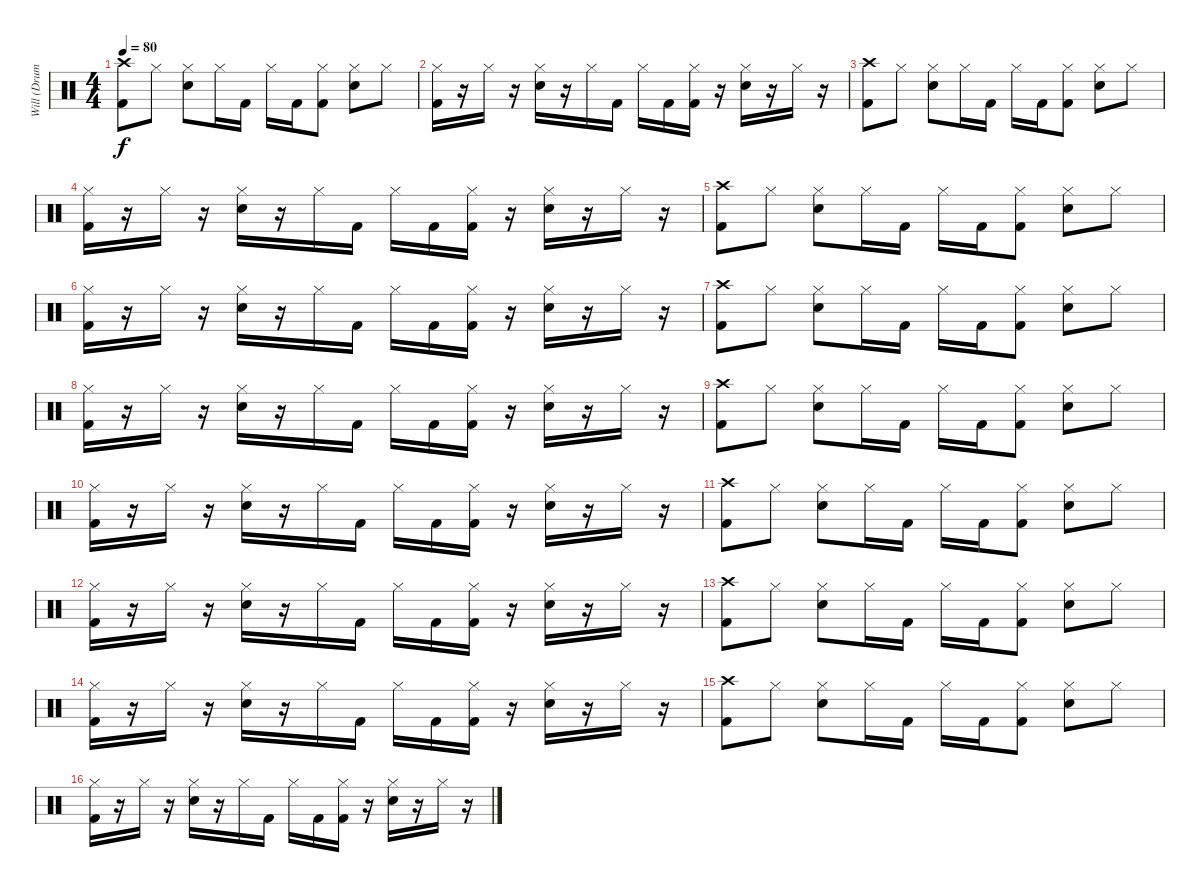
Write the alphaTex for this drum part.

\track ("Will (Drums)" "Will (Drum") {instrument percussion}
\staff {score}
\articulation defaults
\ts (4 4)
\tempo 80
\clef neutral
\ks c
("Crash high (hit)" "Kick (hit) 2").8{dy f} "Hi-Hat (closed)".8 ("Hi-Hat (closed)" "Snare (hit) 2").8 "Hi-Hat (closed)".16 "Kick (hit) 2".16 "Hi-Hat (closed)".16 "Kick (hit) 2".16 ("Hi-Hat (closed)" "Kick (hit) 2").8 ("Hi-Hat (closed)" "Snare (hit) 2").8 "Hi-Hat (closed)".8 |
("Hi-Hat (closed)" "Kick (hit) 2").16 r.16 "Hi-Hat (closed)".16 r.16 ("Hi-Hat (closed)" "Snare (hit) 2").16 r.16 "Hi-Hat (closed)".16 "Kick (hit) 2".16 "Hi-Hat (closed)".16 "Kick (hit) 2".16 ("Hi-Hat (closed)" "Kick (hit) 2").16 r.16 ("Hi-Hat (closed)" "Snare (hit) 2").16 r.16 "Hi-Hat (closed)".16 r.16 |
("Crash high (hit)" "Kick (hit) 2").8 "Hi-Hat (closed)".8 ("Hi-Hat (closed)" "Snare (hit) 2").8 "Hi-Hat (closed)".16 "Kick (hit) 2".16 "Hi-Hat (closed)".16 "Kick (hit) 2".16 ("Hi-Hat (closed)" "Kick (hit) 2").8 ("Hi-Hat (closed)" "Snare (hit) 2").8 "Hi-Hat (closed)".8 |
("Hi-Hat (closed)" "Kick (hit) 2").16 r.16 "Hi-Hat (closed)".16 r.16 ("Hi-Hat (closed)" "Snare (hit) 2").16 r.16 "Hi-Hat (closed)".16 "Kick (hit) 2".16 "Hi-Hat (closed)".16 "Kick (hit) 2".16 ("Hi-Hat (closed)" "Kick (hit) 2").16 r.16 ("Hi-Hat (closed)" "Snare (hit) 2").16 r.16 "Hi-Hat (closed)".16 r.16 |
("Crash high (hit)" "Kick (hit) 2").8 "Hi-Hat (closed)".8 ("Hi-Hat (closed)" "Snare (hit) 2").8 "Hi-Hat (closed)".16 "Kick (hit) 2".16 "Hi-Hat (closed)".16 "Kick (hit) 2".16 ("Hi-Hat (closed)" "Kick (hit) 2").8 ("Hi-Hat (closed)" "Snare (hit) 2").8 "Hi-Hat (closed)".8 |
("Hi-Hat (closed)" "Kick (hit) 2").16 r.16 "Hi-Hat (closed)".16 r.16 ("Hi-Hat (closed)" "Snare (hit) 2").16 r.16 "Hi-Hat (closed)".16 "Kick (hit) 2".16 "Hi-Hat (closed)".16 "Kick (hit) 2".16 ("Hi-Hat (closed)" "Kick (hit) 2").16 r.16 ("Hi-Hat (closed)" "Snare (hit) 2").16 r.16 "Hi-Hat (closed)".16 r.16 |
("Crash high (hit)" "Kick (hit) 2").8 "Hi-Hat (closed)".8 ("Hi-Hat (closed)" "Snare (hit) 2").8 "Hi-Hat (closed)".16 "Kick (hit) 2".16 "Hi-Hat (closed)".16 "Kick (hit) 2".16 ("Hi-Hat (closed)" "Kick (hit) 2").8 ("Hi-Hat (closed)" "Snare (hit) 2").8 "Hi-Hat (closed)".8 |
("Hi-Hat (closed)" "Kick (hit) 2").16 r.16 "Hi-Hat (closed)".16 r.16 ("Hi-Hat (closed)" "Snare (hit) 2").16 r.16 "Hi-Hat (closed)".16 "Kick (hit) 2".16 "Hi-Hat (closed)".16 "Kick (hit) 2".16 ("Hi-Hat (closed)" "Kick (hit) 2").16 r.16 ("Hi-Hat (closed)" "Snare (hit) 2").16 r.16 "Hi-Hat (closed)".16 r.16 |
("Crash high (hit)" "Kick (hit) 2").8 "Hi-Hat (closed)".8 ("Hi-Hat (closed)" "Snare (hit) 2").8 "Hi-Hat (closed)".16 "Kick (hit) 2".16 "Hi-Hat (closed)".16 "Kick (hit) 2".16 ("Hi-Hat (closed)" "Kick (hit) 2").8 ("Hi-Hat (closed)" "Snare (hit) 2").8 "Hi-Hat (closed)".8 |
("Hi-Hat (closed)" "Kick (hit) 2").16 r.16 "Hi-Hat (closed)".16 r.16 ("Hi-Hat (closed)" "Snare (hit) 2").16 r.16 "Hi-Hat (closed)".16 "Kick (hit) 2".16 "Hi-Hat (closed)".16 "Kick (hit) 2".16 ("Hi-Hat (closed)" "Kick (hit) 2").16 r.16 ("Hi-Hat (closed)" "Snare (hit) 2").16 r.16 "Hi-Hat (closed)".16 r.16 |
("Crash high (hit)" "Kick (hit) 2").8 "Hi-Hat (closed)".8 ("Hi-Hat (closed)" "Snare (hit) 2").8 "Hi-Hat (closed)".16 "Kick (hit) 2".16 "Hi-Hat (closed)".16 "Kick (hit) 2".16 ("Hi-Hat (closed)" "Kick (hit) 2").8 ("Hi-Hat (closed)" "Snare (hit) 2").8 "Hi-Hat (closed)".8 |
("Hi-Hat (closed)" "Kick (hit) 2").16 r.16 "Hi-Hat (closed)".16 r.16 ("Hi-Hat (closed)" "Snare (hit) 2").16 r.16 "Hi-Hat (closed)".16 "Kick (hit) 2".16 "Hi-Hat (closed)".16 "Kick (hit) 2".16 ("Hi-Hat (closed)" "Kick (hit) 2").16 r.16 ("Hi-Hat (closed)" "Snare (hit) 2").16 r.16 "Hi-Hat (closed)".16 r.16 |
("Crash high (hit)" "Kick (hit) 2").8 "Hi-Hat (closed)".8 ("Hi-Hat (closed)" "Snare (hit) 2").8 "Hi-Hat (closed)".16 "Kick (hit) 2".16 "Hi-Hat (closed)".16 "Kick (hit) 2".16 ("Hi-Hat (closed)" "Kick (hit) 2").8 ("Hi-Hat (closed)" "Snare (hit) 2").8 "Hi-Hat (closed)".8 |
("Hi-Hat (closed)" "Kick (hit) 2").16 r.16 "Hi-Hat (closed)".16 r.16 ("Hi-Hat (closed)" "Snare (hit) 2").16 r.16 "Hi-Hat (closed)".16 "Kick (hit) 2".16 "Hi-Hat (closed)".16 "Kick (hit) 2".16 ("Hi-Hat (closed)" "Kick (hit) 2").16 r.16 ("Hi-Hat (closed)" "Snare (hit) 2").16 r.16 "Hi-Hat (closed)".16 r.16 |
("Crash high (hit)" "Kick (hit) 2").8 "Hi-Hat (closed)".8 ("Hi-Hat (closed)" "Snare (hit) 2").8 "Hi-Hat (closed)".16 "Kick (hit) 2".16 "Hi-Hat (closed)".16 "Kick (hit) 2".16 ("Hi-Hat (closed)" "Kick (hit) 2").8 ("Hi-Hat (closed)" "Snare (hit) 2").8 "Hi-Hat (closed)".8 |
("Hi-Hat (closed)" "Kick (hit) 2").16 r.16 "Hi-Hat (closed)".16 r.16 ("Hi-Hat (closed)" "Snare (hit) 2").16 r.16 "Hi-Hat (closed)".16 "Kick (hit) 2".16 "Hi-Hat (closed)".16 "Kick (hit) 2".16 ("Hi-Hat (closed)" "Kick (hit) 2").16 r.16 ("Hi-Hat (closed)" "Snare (hit) 2").16 r.16 "Hi-Hat (closed)".16 r.16
